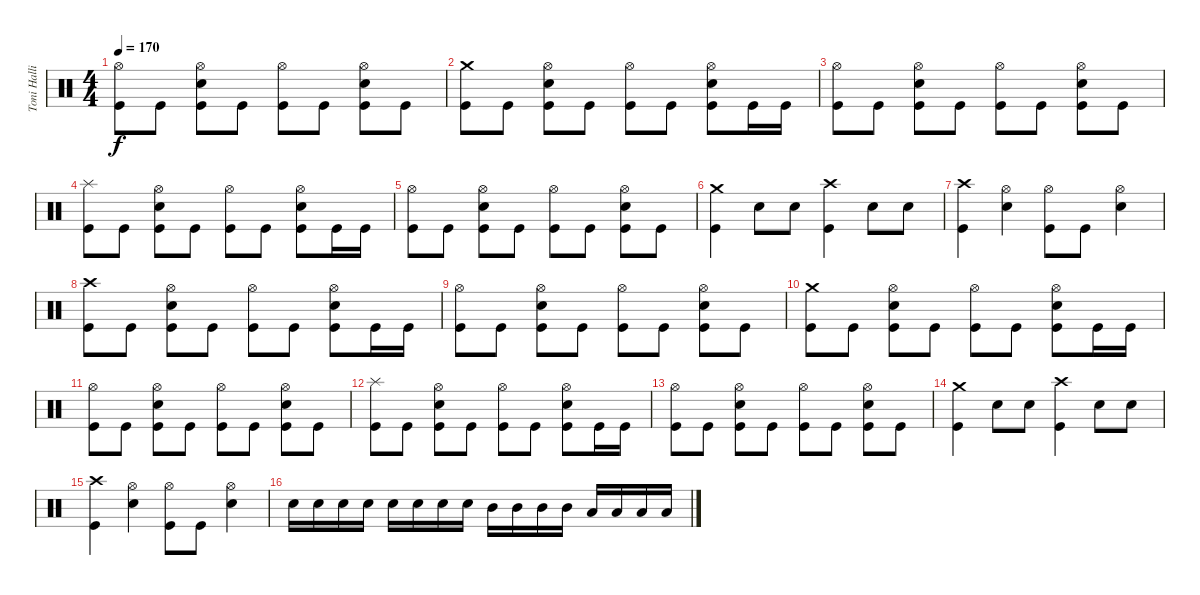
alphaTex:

\track ("Toni Hallio" "Toni Halli") {instrument percussion}
\staff {score}
\articulation defaults
\ts (4 4)
\tempo 170
\clef neutral
\ks c
("Hi-Hat (open)" "Kick (hit)").8{dy f} "Kick (hit)".8 ("Hi-Hat (open)" "Snare (hit) 2" "Kick (hit)").8 "Kick (hit)".8 ("Hi-Hat (open)" "Kick (hit)").8 "Kick (hit)".8 ("Hi-Hat (open)" "Snare (hit) 2" "Kick (hit)").8 "Kick (hit)".8 |
("Crash medium (hit)" "Kick (hit)").8 "Kick (hit)".8 ("Hi-Hat (open)" "Snare (hit) 2" "Kick (hit)").8 "Kick (hit)".8 ("Hi-Hat (open)" "Kick (hit)").8 "Kick (hit)".8 ("Hi-Hat (open)" "Snare (hit) 2" "Kick (hit)").8 "Kick (hit)".16 "Kick (hit)".16 |
("Hi-Hat (open)" "Kick (hit)").8 "Kick (hit)".8 ("Hi-Hat (open)" "Snare (hit) 2" "Kick (hit)").8 "Kick (hit)".8 ("Hi-Hat (open)" "Kick (hit)").8 "Kick (hit)".8 ("Hi-Hat (open)" "Snare (hit) 2" "Kick (hit)").8 "Kick (hit)".8 |
("Splash (hit)" "Kick (hit)").8 "Kick (hit)".8 ("Hi-Hat (open)" "Snare (hit) 2" "Kick (hit)").8 "Kick (hit)".8 ("Hi-Hat (open)" "Kick (hit)").8 "Kick (hit)".8 ("Hi-Hat (open)" "Snare (hit) 2" "Kick (hit)").8 "Kick (hit)".16 "Kick (hit)".16 |
("Hi-Hat (open)" "Kick (hit)").8 "Kick (hit)".8 ("Hi-Hat (open)" "Snare (hit) 2" "Kick (hit)").8 "Kick (hit)".8 ("Hi-Hat (open)" "Kick (hit)").8 "Kick (hit)".8 ("Hi-Hat (open)" "Snare (hit) 2" "Kick (hit)").8 "Kick (hit)".8 |
("Crash medium (hit)" "Kick (hit)").4 "Snare (hit) 2".8 "Snare (hit) 2".8 ("Crash high (hit)" "Kick (hit)").4 "Snare (hit) 2".8 "Snare (hit) 2".8 |
("Crash high (hit)" "Kick (hit)").4 ("Hi-Hat (open)" "Snare (hit) 2").4 ("Hi-Hat (open)" "Kick (hit)").8 "Kick (hit)".8 ("Hi-Hat (open)" "Snare (hit) 2").4 |
("Crash high (hit)" "Kick (hit)").8 "Kick (hit)".8 ("Hi-Hat (open)" "Snare (hit) 2" "Kick (hit)").8 "Kick (hit)".8 ("Hi-Hat (open)" "Kick (hit)").8 "Kick (hit)".8 ("Hi-Hat (open)" "Snare (hit) 2" "Kick (hit)").8 "Kick (hit)".16 "Kick (hit)".16 |
("Hi-Hat (open)" "Kick (hit)").8 "Kick (hit)".8 ("Hi-Hat (open)" "Snare (hit) 2" "Kick (hit)").8 "Kick (hit)".8 ("Hi-Hat (open)" "Kick (hit)").8 "Kick (hit)".8 ("Hi-Hat (open)" "Snare (hit) 2" "Kick (hit)").8 "Kick (hit)".8 |
("Crash medium (hit)" "Kick (hit)").8 "Kick (hit)".8 ("Hi-Hat (open)" "Snare (hit) 2" "Kick (hit)").8 "Kick (hit)".8 ("Hi-Hat (open)" "Kick (hit)").8 "Kick (hit)".8 ("Hi-Hat (open)" "Snare (hit) 2" "Kick (hit)").8 "Kick (hit)".16 "Kick (hit)".16 |
("Hi-Hat (open)" "Kick (hit)").8 "Kick (hit)".8 ("Hi-Hat (open)" "Snare (hit) 2" "Kick (hit)").8 "Kick (hit)".8 ("Hi-Hat (open)" "Kick (hit)").8 "Kick (hit)".8 ("Hi-Hat (open)" "Snare (hit) 2" "Kick (hit)").8 "Kick (hit)".8 |
("Splash (hit)" "Kick (hit)").8 "Kick (hit)".8 ("Hi-Hat (open)" "Snare (hit) 2" "Kick (hit)").8 "Kick (hit)".8 ("Hi-Hat (open)" "Kick (hit)").8 "Kick (hit)".8 ("Hi-Hat (open)" "Snare (hit) 2" "Kick (hit)").8 "Kick (hit)".16 "Kick (hit)".16 |
("Hi-Hat (open)" "Kick (hit)").8 "Kick (hit)".8 ("Hi-Hat (open)" "Snare (hit) 2" "Kick (hit)").8 "Kick (hit)".8 ("Hi-Hat (open)" "Kick (hit)").8 "Kick (hit)".8 ("Hi-Hat (open)" "Snare (hit) 2" "Kick (hit)").8 "Kick (hit)".8 |
("Crash medium (hit)" "Kick (hit)").4 "Snare (hit) 2".8 "Snare (hit) 2".8 ("Crash high (hit)" "Kick (hit)").4 "Snare (hit) 2".8 "Snare (hit) 2".8 |
("Crash high (hit)" "Kick (hit)").4 ("Hi-Hat (open)" "Snare (hit) 2").4 ("Hi-Hat (open)" "Kick (hit)").8 "Kick (hit)".8 ("Hi-Hat (open)" "Snare (hit) 2").4 |
"Snare (hit) 2".16 "Snare (hit) 2".16 "Snare (hit) 2".16 "Snare (hit) 2".16 "Snare (hit) 2".16 "Snare (hit) 2".16 "Snare (hit) 2".16 "Snare (hit) 2".16 "Mid Tom (hit)".16 "Mid Tom (hit)".16 "Mid Tom (hit)".16 "Mid Tom (hit)".16 "Low Tom (hit)".16 "Low Tom (hit)".16 "Low Tom (hit)".16 "Low Tom (hit)".16
